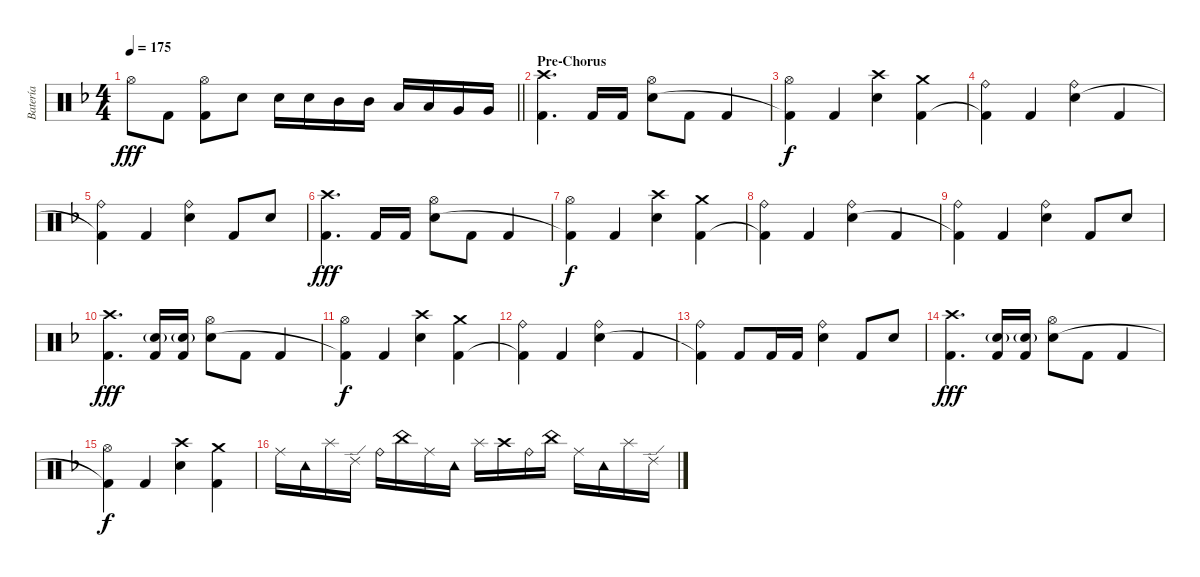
\track ("Batería" "Batería") {instrument percussion}
\staff {score}
\articulation defaults
\ts (4 4)
\tempo 175
\clef neutral
\barLineRight lightlight
\ks dminor "Hi-Hat (open)".8{dy fff} "Kick (hit) 2".8
("Hi-Hat (open)" "Kick (hit) 2").8 "Snare (hit) 2".8 "Snare (hit) 2".16 "Snare (hit) 2".16 "Mid Tom (hit)".16 "Mid Tom (hit)".16 "Low Tom (hit)".16 "Low Tom (hit)".16 "Very Low Tom (hit)".16 "Very Low Tom (hit)".16 |
\section ("" "Pre-Chorus")
("Crash high (hit)" "Kick (hit) 2").4{d} "Kick (hit) 2".16 "Kick (hit) 2".16 ("Hi-Hat (open)" "Snare (hit) 2").8 "Kick (hit) 2".8 "Kick (hit) 2".4 |
("Hi-Hat (open)" "Kick (hit) 2"{t}).4{dy f} "Kick (hit) 2".4 ("Crash high (hit)" "Snare (hit) 2").4 ("Crash medium (hit)" "Kick (hit) 2").4 |
("Ride (bell)" "Kick (hit) 2"{t}).4 "Kick (hit) 2".4 ("Ride (bell)" "Snare (hit) 2").4 "Kick (hit) 2".4 |
("Ride (bell)" "Kick (hit) 2"{t}).4 "Kick (hit) 2".4 ("Ride (bell)" "Snare (hit) 2").4 "Kick (hit) 2".8 "Snare (hit) 2".8 |
("Crash high (hit)" "Kick (hit) 2").4{d dy fff} "Kick (hit) 2".16 "Kick (hit) 2".16 ("Hi-Hat (open)" "Snare (hit) 2").8 "Kick (hit) 2".8 "Kick (hit) 2".4 |
("Hi-Hat (open)" "Kick (hit) 2"{t}).4{dy f} "Kick (hit) 2".4 ("Crash high (hit)" "Snare (hit) 2").4 ("Crash medium (hit)" "Kick (hit) 2").4 |
("Ride (bell)" "Kick (hit) 2"{t}).4 "Kick (hit) 2".4 ("Ride (bell)" "Snare (hit) 2").4 "Kick (hit) 2".4 |
("Ride (bell)" "Kick (hit) 2"{t}).4 "Kick (hit) 2".4 ("Ride (bell)" "Snare (hit) 2").4 "Kick (hit) 2".8 "Snare (hit) 2".8 |
("Crash high (hit)" "Kick (hit) 2").4{d dy fff} ("Snare (hit) 2"{g} "Kick (hit) 2").16 ("Snare (hit) 2"{g} "Kick (hit) 2").16 ("Hi-Hat (open)" "Snare (hit) 2").8 "Kick (hit) 2".8 "Kick (hit) 2".4 |
("Hi-Hat (open)" "Kick (hit) 2"{t}).4{dy f} "Kick (hit) 2".4 ("Crash high (hit)" "Snare (hit) 2").4 ("Crash medium (hit)" "Kick (hit) 2").4 |
("Ride (bell)" "Kick (hit) 2"{t}).4 "Kick (hit) 2".4 ("Ride (bell)" "Snare (hit) 2").4 "Kick (hit) 2".4 |
("Ride (bell)" "Kick (hit) 2"{t}).4 "Kick (hit) 2".8 "Kick (hit) 2".16 "Kick (hit) 2".16 ("Ride (bell)" "Snare (hit) 2").4 "Kick (hit) 2".8 "Snare (hit) 2".8 |
("Crash high (hit)" "Kick (hit) 2").4{d dy fff} ("Snare (hit) 2"{g} "Kick (hit) 2").16 ("Snare (hit) 2"{g} "Kick (hit) 2").16 ("Hi-Hat (open)" "Snare (hit) 2").8 "Kick (hit) 2".8 "Kick (hit) 2".4 |
("Hi-Hat (open)" "Kick (hit) 2"{t}).4{dy f} "Kick (hit) 2".4 ("Crash high (hit)" "Snare (hit) 2").4 ("Crash medium (hit)" "Kick (hit) 2").4 |
"Ride (middle)".16 "Tambourine (hit)".16 "Splash (hit)".16 "Ride (edge) 2".16 "Ride (bell)".16 "China (hit)".16 "Ride (middle)".16 "Tambourine (hit)".16 "Splash (hit)".16 "Crash high (hit)".16 "Ride (bell)".16 "China (hit)".16 "Ride (middle)".16 "Tambourine (hit)".16 "Splash (hit)".16 "Ride (edge) 2".16
